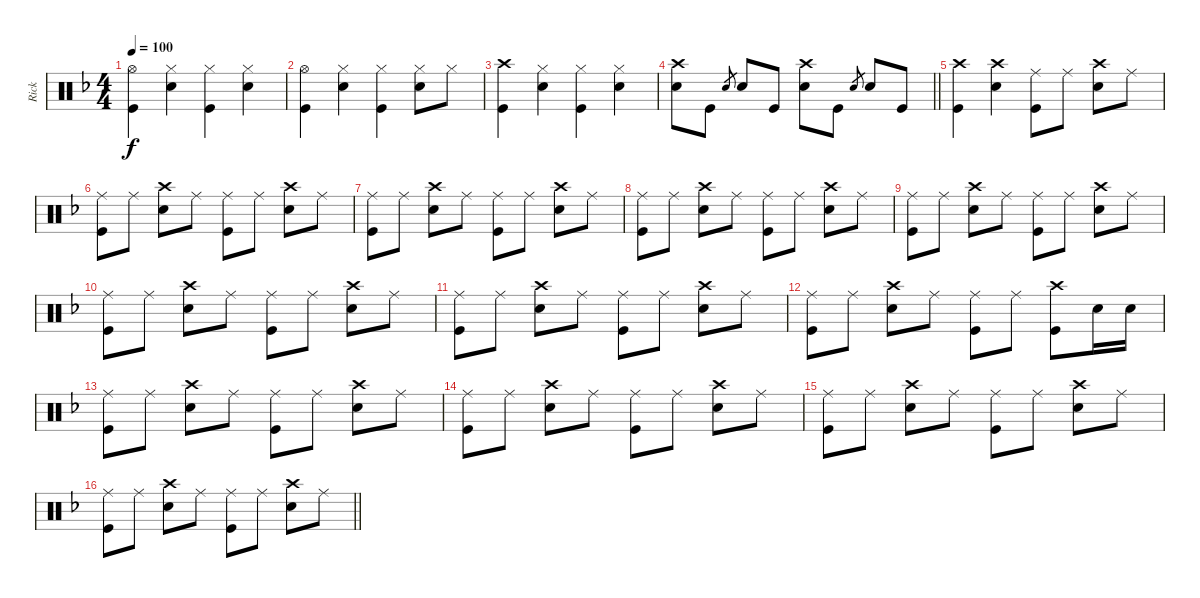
\track ("Rick" "Rick") {instrument percussion}
\staff {score}
\articulation defaults
\ts (4 4)
\tempo 100
\clef neutral
\ks dminor
("Hi-Hat (open)" "Kick (hit)").4{dy f} ("Hi-Hat (closed)" "Snare (hit) 2").4 ("Hi-Hat (closed)" "Kick (hit)").4 ("Hi-Hat (closed)" "Snare (hit) 2").4 |
("Hi-Hat (open)" "Kick (hit)").4 ("Hi-Hat (closed)" "Snare (hit) 2").4 ("Hi-Hat (closed)" "Kick (hit)").4 ("Hi-Hat (closed)" "Snare (hit) 2").8 "Hi-Hat (closed)".8 |
("Crash high (hit)" "Kick (hit)").4 ("Hi-Hat (closed)" "Snare (hit) 2").4 ("Hi-Hat (closed)" "Kick (hit)").4 ("Hi-Hat (closed)" "Snare (hit) 2").4 |
\barLineRight lightlight
("Crash high (hit)" "Snare (hit) 2").8 "Kick (hit)".8 "Snare (hit) 2".8{gr} "Snare (hit) 2".8 "Kick (hit)".8 ("Crash high (hit)" "Snare (hit) 2").8 "Kick (hit)".8 "Snare (hit) 2".8{gr} "Snare (hit) 2".8 "Kick (hit)".8 |
("Crash high (hit)" "Kick (hit)").4 ("Crash high (hit)" "Snare (hit) 2").4 ("Ride (middle)" "Kick (hit)").8 "Ride (middle)".8 ("Crash high (hit)" "Snare (hit) 2").8 "Ride (middle)".8 |
("Ride (middle)" "Kick (hit)").8 "Ride (middle)".8 ("Crash high (hit)" "Snare (hit) 2").8 "Ride (middle)".8 ("Ride (middle)" "Kick (hit)").8 "Ride (middle)".8 ("Crash high (hit)" "Snare (hit) 2").8 "Ride (middle)".8 |
("Ride (middle)" "Kick (hit)").8 "Ride (middle)".8 ("Crash high (hit)" "Snare (hit) 2").8 "Ride (middle)".8 ("Ride (middle)" "Kick (hit)").8 "Ride (middle)".8 ("Crash high (hit)" "Snare (hit) 2").8 "Ride (middle)".8 |
("Ride (middle)" "Kick (hit)").8 "Ride (middle)".8 ("Crash high (hit)" "Snare (hit) 2").8 "Ride (middle)".8 ("Ride (middle)" "Kick (hit)").8 "Ride (middle)".8 ("Crash high (hit)" "Snare (hit) 2").8 "Ride (middle)".8 |
("Ride (middle)" "Kick (hit)").8 "Ride (middle)".8 ("Crash high (hit)" "Snare (hit) 2").8 "Ride (middle)".8 ("Ride (middle)" "Kick (hit)").8 "Ride (middle)".8 ("Crash high (hit)" "Snare (hit) 2").8 "Ride (middle)".8 |
("Ride (middle)" "Kick (hit)").8 "Ride (middle)".8 ("Crash high (hit)" "Snare (hit) 2").8 "Ride (middle)".8 ("Ride (middle)" "Kick (hit)").8 "Ride (middle)".8 ("Crash high (hit)" "Snare (hit) 2").8 "Ride (middle)".8 |
("Ride (middle)" "Kick (hit)").8 "Ride (middle)".8 ("Crash high (hit)" "Snare (hit) 2").8 "Ride (middle)".8 ("Ride (middle)" "Kick (hit)").8 "Ride (middle)".8 ("Crash high (hit)" "Snare (hit) 2").8 "Ride (middle)".8 |
("Ride (middle)" "Kick (hit)").8 "Ride (middle)".8 ("Crash high (hit)" "Snare (hit) 2").8 "Ride (middle)".8 ("Ride (middle)" "Kick (hit)").8 "Ride (middle)".8 ("Crash high (hit)" "Kick (hit)").8 "Snare (hit) 2".16 "Snare (hit) 2".16 |
("Ride (middle)" "Kick (hit)").8 "Ride (middle)".8 ("Crash high (hit)" "Snare (hit) 2").8 "Ride (middle)".8 ("Ride (middle)" "Kick (hit)").8 "Ride (middle)".8 ("Crash high (hit)" "Snare (hit) 2").8 "Ride (middle)".8 |
("Ride (middle)" "Kick (hit)").8 "Ride (middle)".8 ("Crash high (hit)" "Snare (hit) 2").8 "Ride (middle)".8 ("Ride (middle)" "Kick (hit)").8 "Ride (middle)".8 ("Crash high (hit)" "Snare (hit) 2").8 "Ride (middle)".8 |
("Ride (middle)" "Kick (hit)").8 "Ride (middle)".8 ("Crash high (hit)" "Snare (hit) 2").8 "Ride (middle)".8 ("Ride (middle)" "Kick (hit)").8 "Ride (middle)".8 ("Crash high (hit)" "Snare (hit) 2").8 "Ride (middle)".8 |
\barLineRight lightlight
("Ride (middle)" "Kick (hit)").8 "Ride (middle)".8 ("Crash high (hit)" "Snare (hit) 2").8 "Ride (middle)".8 ("Ride (middle)" "Kick (hit)").8 "Ride (middle)".8 ("Crash high (hit)" "Snare (hit) 2").8 "Ride (middle)".8
